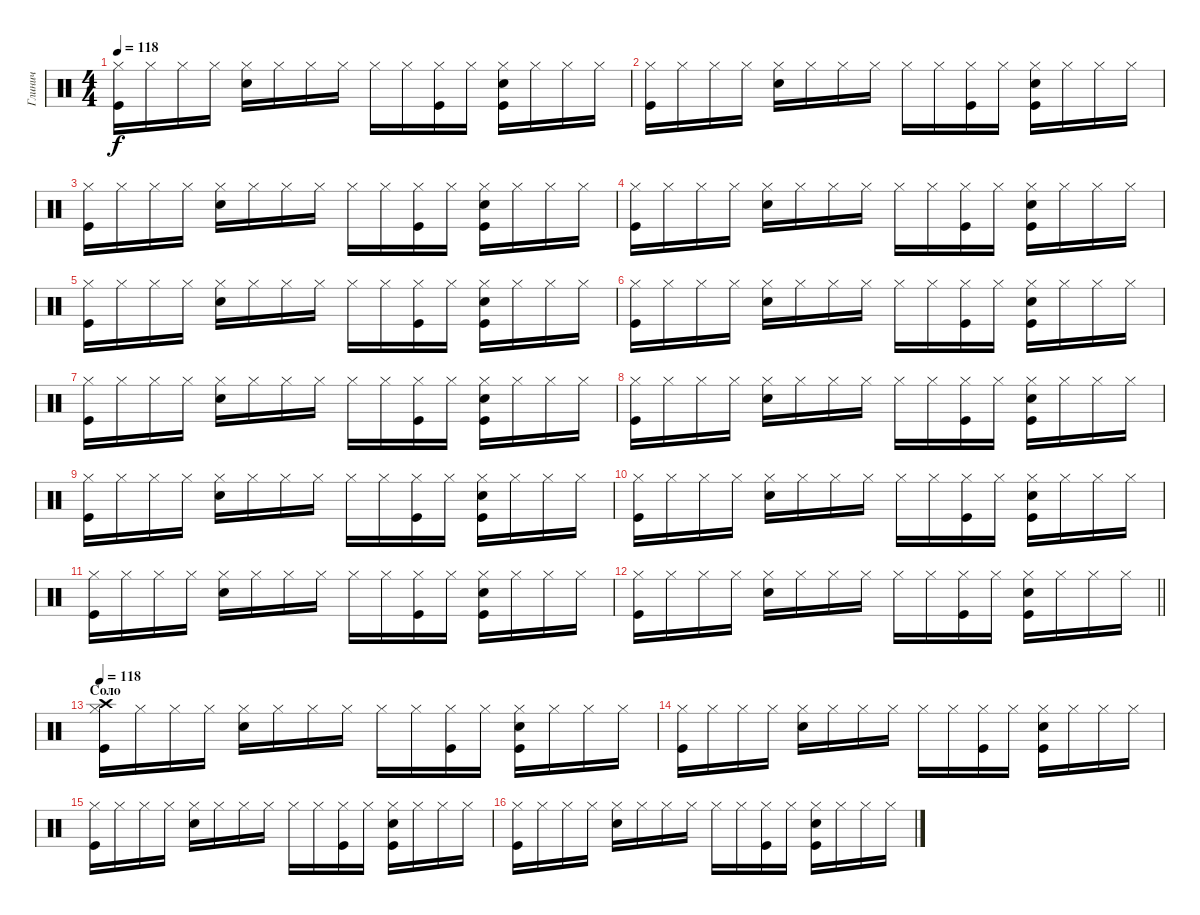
\track ("Глинич" "Глинич") {instrument percussion}
\staff {score}
\articulation defaults
\ts (4 4)
\tempo 118
\clef neutral
\ks c
("Hi-Hat (closed)" "Kick (hit)").16{dy f} "Hi-Hat (closed)".16 "Hi-Hat (closed)".16 "Hi-Hat (closed)".16 ("Hi-Hat (closed)" "Snare (hit) 2").16 "Hi-Hat (closed)".16 "Hi-Hat (closed)".16 "Hi-Hat (closed)".16 "Hi-Hat (closed)".16 "Hi-Hat (closed)".16 ("Hi-Hat (closed)" "Kick (hit)").16 "Hi-Hat (closed)".16 ("Hi-Hat (closed)" "Snare (hit) 2" "Kick (hit)").16 "Hi-Hat (closed)".16 "Hi-Hat (closed)".16 "Hi-Hat (closed)".16 |
("Hi-Hat (closed)" "Kick (hit)").16 "Hi-Hat (closed)".16 "Hi-Hat (closed)".16 "Hi-Hat (closed)".16 ("Hi-Hat (closed)" "Snare (hit) 2").16 "Hi-Hat (closed)".16 "Hi-Hat (closed)".16 "Hi-Hat (closed)".16 "Hi-Hat (closed)".16 "Hi-Hat (closed)".16 ("Hi-Hat (closed)" "Kick (hit)").16 "Hi-Hat (closed)".16 ("Hi-Hat (closed)" "Snare (hit) 2" "Kick (hit)").16 "Hi-Hat (closed)".16 "Hi-Hat (closed)".16 "Hi-Hat (closed)".16 |
("Hi-Hat (closed)" "Kick (hit)").16 "Hi-Hat (closed)".16 "Hi-Hat (closed)".16 "Hi-Hat (closed)".16 ("Hi-Hat (closed)" "Snare (hit) 2").16 "Hi-Hat (closed)".16 "Hi-Hat (closed)".16 "Hi-Hat (closed)".16 "Hi-Hat (closed)".16 "Hi-Hat (closed)".16 ("Hi-Hat (closed)" "Kick (hit)").16 "Hi-Hat (closed)".16 ("Hi-Hat (closed)" "Snare (hit) 2" "Kick (hit)").16 "Hi-Hat (closed)".16 "Hi-Hat (closed)".16 "Hi-Hat (closed)".16 |
("Hi-Hat (closed)" "Kick (hit)").16 "Hi-Hat (closed)".16 "Hi-Hat (closed)".16 "Hi-Hat (closed)".16 ("Hi-Hat (closed)" "Snare (hit) 2").16 "Hi-Hat (closed)".16 "Hi-Hat (closed)".16 "Hi-Hat (closed)".16 "Hi-Hat (closed)".16 "Hi-Hat (closed)".16 ("Hi-Hat (closed)" "Kick (hit)").16 "Hi-Hat (closed)".16 ("Hi-Hat (closed)" "Snare (hit) 2" "Kick (hit)").16 "Hi-Hat (closed)".16 "Hi-Hat (closed)".16 "Hi-Hat (closed)".16 |
("Hi-Hat (closed)" "Kick (hit)").16 "Hi-Hat (closed)".16 "Hi-Hat (closed)".16 "Hi-Hat (closed)".16 ("Hi-Hat (closed)" "Snare (hit) 2").16 "Hi-Hat (closed)".16 "Hi-Hat (closed)".16 "Hi-Hat (closed)".16 "Hi-Hat (closed)".16 "Hi-Hat (closed)".16 ("Hi-Hat (closed)" "Kick (hit)").16 "Hi-Hat (closed)".16 ("Hi-Hat (closed)" "Snare (hit) 2" "Kick (hit)").16 "Hi-Hat (closed)".16 "Hi-Hat (closed)".16 "Hi-Hat (closed)".16 |
("Hi-Hat (closed)" "Kick (hit)").16 "Hi-Hat (closed)".16 "Hi-Hat (closed)".16 "Hi-Hat (closed)".16 ("Hi-Hat (closed)" "Snare (hit) 2").16 "Hi-Hat (closed)".16 "Hi-Hat (closed)".16 "Hi-Hat (closed)".16 "Hi-Hat (closed)".16 "Hi-Hat (closed)".16 ("Hi-Hat (closed)" "Kick (hit)").16 "Hi-Hat (closed)".16 ("Hi-Hat (closed)" "Snare (hit) 2" "Kick (hit)").16 "Hi-Hat (closed)".16 "Hi-Hat (closed)".16 "Hi-Hat (closed)".16 |
("Hi-Hat (closed)" "Kick (hit)").16 "Hi-Hat (closed)".16 "Hi-Hat (closed)".16 "Hi-Hat (closed)".16 ("Hi-Hat (closed)" "Snare (hit) 2").16 "Hi-Hat (closed)".16 "Hi-Hat (closed)".16 "Hi-Hat (closed)".16 "Hi-Hat (closed)".16 "Hi-Hat (closed)".16 ("Hi-Hat (closed)" "Kick (hit)").16 "Hi-Hat (closed)".16 ("Hi-Hat (closed)" "Snare (hit) 2" "Kick (hit)").16 "Hi-Hat (closed)".16 "Hi-Hat (closed)".16 "Hi-Hat (closed)".16 |
("Hi-Hat (closed)" "Kick (hit)").16 "Hi-Hat (closed)".16 "Hi-Hat (closed)".16 "Hi-Hat (closed)".16 ("Hi-Hat (closed)" "Snare (hit) 2").16 "Hi-Hat (closed)".16 "Hi-Hat (closed)".16 "Hi-Hat (closed)".16 "Hi-Hat (closed)".16 "Hi-Hat (closed)".16 ("Hi-Hat (closed)" "Kick (hit)").16 "Hi-Hat (closed)".16 ("Hi-Hat (closed)" "Snare (hit) 2" "Kick (hit)").16 "Hi-Hat (closed)".16 "Hi-Hat (closed)".16 "Hi-Hat (closed)".16 |
("Hi-Hat (closed)" "Kick (hit)").16 "Hi-Hat (closed)".16 "Hi-Hat (closed)".16 "Hi-Hat (closed)".16 ("Hi-Hat (closed)" "Snare (hit) 2").16 "Hi-Hat (closed)".16 "Hi-Hat (closed)".16 "Hi-Hat (closed)".16 "Hi-Hat (closed)".16 "Hi-Hat (closed)".16 ("Hi-Hat (closed)" "Kick (hit)").16 "Hi-Hat (closed)".16 ("Hi-Hat (closed)" "Snare (hit) 2" "Kick (hit)").16 "Hi-Hat (closed)".16 "Hi-Hat (closed)".16 "Hi-Hat (closed)".16 |
("Hi-Hat (closed)" "Kick (hit)").16 "Hi-Hat (closed)".16 "Hi-Hat (closed)".16 "Hi-Hat (closed)".16 ("Hi-Hat (closed)" "Snare (hit) 2").16 "Hi-Hat (closed)".16 "Hi-Hat (closed)".16 "Hi-Hat (closed)".16 "Hi-Hat (closed)".16 "Hi-Hat (closed)".16 ("Hi-Hat (closed)" "Kick (hit)").16 "Hi-Hat (closed)".16 ("Hi-Hat (closed)" "Snare (hit) 2" "Kick (hit)").16 "Hi-Hat (closed)".16 "Hi-Hat (closed)".16 "Hi-Hat (closed)".16 |
("Hi-Hat (closed)" "Kick (hit)").16 "Hi-Hat (closed)".16 "Hi-Hat (closed)".16 "Hi-Hat (closed)".16 ("Hi-Hat (closed)" "Snare (hit) 2").16 "Hi-Hat (closed)".16 "Hi-Hat (closed)".16 "Hi-Hat (closed)".16 "Hi-Hat (closed)".16 "Hi-Hat (closed)".16 ("Hi-Hat (closed)" "Kick (hit)").16 "Hi-Hat (closed)".16 ("Hi-Hat (closed)" "Snare (hit) 2" "Kick (hit)").16 "Hi-Hat (closed)".16 "Hi-Hat (closed)".16 "Hi-Hat (closed)".16 |
\barLineRight lightlight
("Hi-Hat (closed)" "Kick (hit)").16 "Hi-Hat (closed)".16 "Hi-Hat (closed)".16 "Hi-Hat (closed)".16 ("Hi-Hat (closed)" "Snare (hit) 2").16 "Hi-Hat (closed)".16 "Hi-Hat (closed)".16 "Hi-Hat (closed)".16 "Hi-Hat (closed)".16 "Hi-Hat (closed)".16 ("Hi-Hat (closed)" "Kick (hit)").16 "Hi-Hat (closed)".16 ("Hi-Hat (closed)" "Snare (hit) 2" "Kick (hit)").16 "Hi-Hat (closed)".16 "Hi-Hat (closed)".16 "Hi-Hat (closed)".16 |
\section ("" "Соло")
\tempo 118
("Hi-Hat (closed)" "Kick (hit)" "Crash high (hit)").16 "Hi-Hat (closed)".16 "Hi-Hat (closed)".16 "Hi-Hat (closed)".16 ("Hi-Hat (closed)" "Snare (hit) 2").16 "Hi-Hat (closed)".16 "Hi-Hat (closed)".16 "Hi-Hat (closed)".16 "Hi-Hat (closed)".16 "Hi-Hat (closed)".16 ("Hi-Hat (closed)" "Kick (hit)").16 "Hi-Hat (closed)".16 ("Hi-Hat (closed)" "Snare (hit) 2" "Kick (hit)").16 "Hi-Hat (closed)".16 "Hi-Hat (closed)".16 "Hi-Hat (closed)".16 |
("Hi-Hat (closed)" "Kick (hit)").16 "Hi-Hat (closed)".16 "Hi-Hat (closed)".16 "Hi-Hat (closed)".16 ("Hi-Hat (closed)" "Snare (hit) 2").16 "Hi-Hat (closed)".16 "Hi-Hat (closed)".16 "Hi-Hat (closed)".16 "Hi-Hat (closed)".16 "Hi-Hat (closed)".16 ("Hi-Hat (closed)" "Kick (hit)").16 "Hi-Hat (closed)".16 ("Hi-Hat (closed)" "Snare (hit) 2" "Kick (hit)").16 "Hi-Hat (closed)".16 "Hi-Hat (closed)".16 "Hi-Hat (closed)".16 |
("Hi-Hat (closed)" "Kick (hit)").16 "Hi-Hat (closed)".16 "Hi-Hat (closed)".16 "Hi-Hat (closed)".16 ("Hi-Hat (closed)" "Snare (hit) 2").16 "Hi-Hat (closed)".16 "Hi-Hat (closed)".16 "Hi-Hat (closed)".16 "Hi-Hat (closed)".16 "Hi-Hat (closed)".16 ("Hi-Hat (closed)" "Kick (hit)").16 "Hi-Hat (closed)".16 ("Hi-Hat (closed)" "Snare (hit) 2" "Kick (hit)").16 "Hi-Hat (closed)".16 "Hi-Hat (closed)".16 "Hi-Hat (closed)".16 |
("Hi-Hat (closed)" "Kick (hit)").16 "Hi-Hat (closed)".16 "Hi-Hat (closed)".16 "Hi-Hat (closed)".16 ("Hi-Hat (closed)" "Snare (hit) 2").16 "Hi-Hat (closed)".16 "Hi-Hat (closed)".16 "Hi-Hat (closed)".16 "Hi-Hat (closed)".16 "Hi-Hat (closed)".16 ("Hi-Hat (closed)" "Kick (hit)").16 "Hi-Hat (closed)".16 ("Hi-Hat (closed)" "Snare (hit) 2" "Kick (hit)").16 "Hi-Hat (closed)".16 "Hi-Hat (closed)".16 "Hi-Hat (closed)".16
